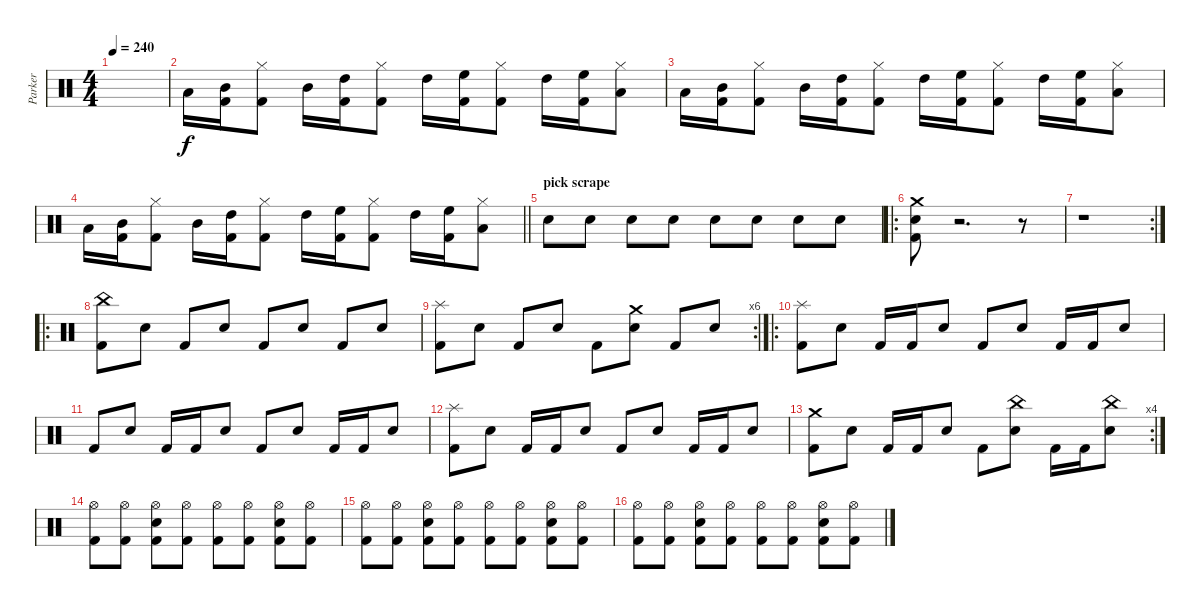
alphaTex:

\track ("Parker" "Parker") {instrument percussion}
\staff {score}
\articulation defaults
\ts (4 4)
\tempo 240
\clef neutral
\ks c
|
"Low Tom (hit)".16 ("Mid Tom (hit)" "Kick (hit) 2").16 ("Hi-Hat (closed)" "Kick (hit) 2").8 "Mid Tom (hit)".16 ("High Tom (hit)" "Kick (hit) 2").16 ("Hi-Hat (closed)" "Kick (hit) 2").8 "High Tom (hit)".16 ("High Floor Tom (hit)" "Kick (hit) 2").16 ("Hi-Hat (closed)" "Kick (hit) 2").8 "High Tom (hit)".16 ("High Floor Tom (hit)" "Kick (hit) 2").16 ("Hi-Hat (closed)" "Low Tom (hit)").8 |
"Low Tom (hit)".16 ("Mid Tom (hit)" "Kick (hit) 2").16 ("Hi-Hat (closed)" "Kick (hit) 2").8 "Mid Tom (hit)".16 ("High Tom (hit)" "Kick (hit) 2").16 ("Hi-Hat (closed)" "Kick (hit) 2").8 "High Tom (hit)".16 ("High Floor Tom (hit)" "Kick (hit) 2").16 ("Hi-Hat (closed)" "Kick (hit) 2").8 "High Tom (hit)".16 ("High Floor Tom (hit)" "Kick (hit) 2").16 ("Hi-Hat (closed)" "Low Tom (hit)").8 |
\barLineRight lightlight "Low Tom (hit)".16
("Mid Tom (hit)" "Kick (hit) 2").16 ("Hi-Hat (closed)" "Kick (hit) 2").8 "Mid Tom (hit)".16 ("High Tom (hit)" "Kick (hit) 2").16 ("Hi-Hat (closed)" "Kick (hit) 2").8 "High Tom (hit)".16 ("High Floor Tom (hit)" "Kick (hit) 2").16 ("Hi-Hat (closed)" "Kick (hit) 2").8 "High Tom (hit)".16 ("High Floor Tom (hit)" "Kick (hit) 2").16 ("Hi-Hat (closed)" "Low Tom (hit)").8 |
\section ("" "pick scrape")
"Electric Snare (hit)".8 "Electric Snare (hit)".8 "Electric Snare (hit)".8 "Electric Snare (hit)".8 "Electric Snare (hit)".8 "Electric Snare (hit)".8 "Electric Snare (hit)".8 "Electric Snare (hit)".8 |
\ro
("Crash medium (hit)" "Electric Snare (hit)" "Kick (hit) 2").8 r.2{d} r.8 |
\rc 2
r.1 |
\ro
("China (hit)" "Kick (hit) 2").8 "Electric Snare (hit)".8 "Kick (hit) 2".8 "Electric Snare (hit)".8 "Kick (hit) 2".8 "Electric Snare (hit)".8 "Kick (hit) 2".8 "Electric Snare (hit)".8 |
\rc 6
("Splash (hit)" "Kick (hit) 2").8 "Electric Snare (hit)".8 "Kick (hit) 2".8 "Electric Snare (hit)".8 "Kick (hit) 2".8 ("Crash medium (hit)" "Electric Snare (hit)").8 "Kick (hit) 2".8 "Electric Snare (hit)".8 |
\ro
("Splash (hit)" "Kick (hit) 2").8 "Electric Snare (hit)".8 "Kick (hit) 2".16 "Kick (hit) 2".16 "Electric Snare (hit)".8 "Kick (hit) 2".8 "Electric Snare (hit)".8 "Kick (hit) 2".16 "Kick (hit) 2".16 "Electric Snare (hit)".8 |
"Kick (hit) 2".8 "Electric Snare (hit)".8 "Kick (hit) 2".16 "Kick (hit) 2".16 "Electric Snare (hit)".8 "Kick (hit) 2".8 "Electric Snare (hit)".8 "Kick (hit) 2".16 "Kick (hit) 2".16 "Electric Snare (hit)".8 |
("Splash (hit)" "Kick (hit) 2").8 "Electric Snare (hit)".8 "Kick (hit) 2".16 "Kick (hit) 2".16 "Electric Snare (hit)".8 "Kick (hit) 2".8 "Electric Snare (hit)".8 "Kick (hit) 2".16 "Kick (hit) 2".16 "Electric Snare (hit)".8 |
\rc 4
("Crash medium (hit)" "Kick (hit) 2").8 "Electric Snare (hit)".8 "Kick (hit) 2".16 "Kick (hit) 2".16 "Electric Snare (hit)".8 "Kick (hit) 2".8 ("China (hit)" "Electric Snare (hit)").8 "Kick (hit) 2".16 "Kick (hit) 2".16 ("China (hit)" "Electric Snare (hit)").8 |
("Hi-Hat (open)" "Kick (hit) 2").8 ("Hi-Hat (open)" "Kick (hit) 2").8 ("Hi-Hat (open)" "Electric Snare (hit)" "Kick (hit) 2").8 ("Hi-Hat (open)" "Kick (hit) 2").8 ("Hi-Hat (open)" "Kick (hit) 2").8 ("Hi-Hat (open)" "Kick (hit) 2").8 ("Hi-Hat (open)" "Electric Snare (hit)" "Kick (hit) 2").8 ("Hi-Hat (open)" "Kick (hit) 2").8 |
("Hi-Hat (open)" "Kick (hit) 2").8 ("Hi-Hat (open)" "Kick (hit) 2").8 ("Hi-Hat (open)" "Electric Snare (hit)" "Kick (hit) 2").8 ("Hi-Hat (open)" "Kick (hit) 2").8 ("Hi-Hat (open)" "Kick (hit) 2").8 ("Hi-Hat (open)" "Kick (hit) 2").8 ("Hi-Hat (open)" "Electric Snare (hit)" "Kick (hit) 2").8 ("Hi-Hat (open)" "Kick (hit) 2").8 |
("Hi-Hat (open)" "Kick (hit) 2").8 ("Hi-Hat (open)" "Kick (hit) 2").8 ("Hi-Hat (open)" "Electric Snare (hit)" "Kick (hit) 2").8 ("Hi-Hat (open)" "Kick (hit) 2").8 ("Hi-Hat (open)" "Kick (hit) 2").8 ("Hi-Hat (open)" "Kick (hit) 2").8 ("Hi-Hat (open)" "Electric Snare (hit)" "Kick (hit) 2").8 ("Hi-Hat (open)" "Kick (hit) 2").8
